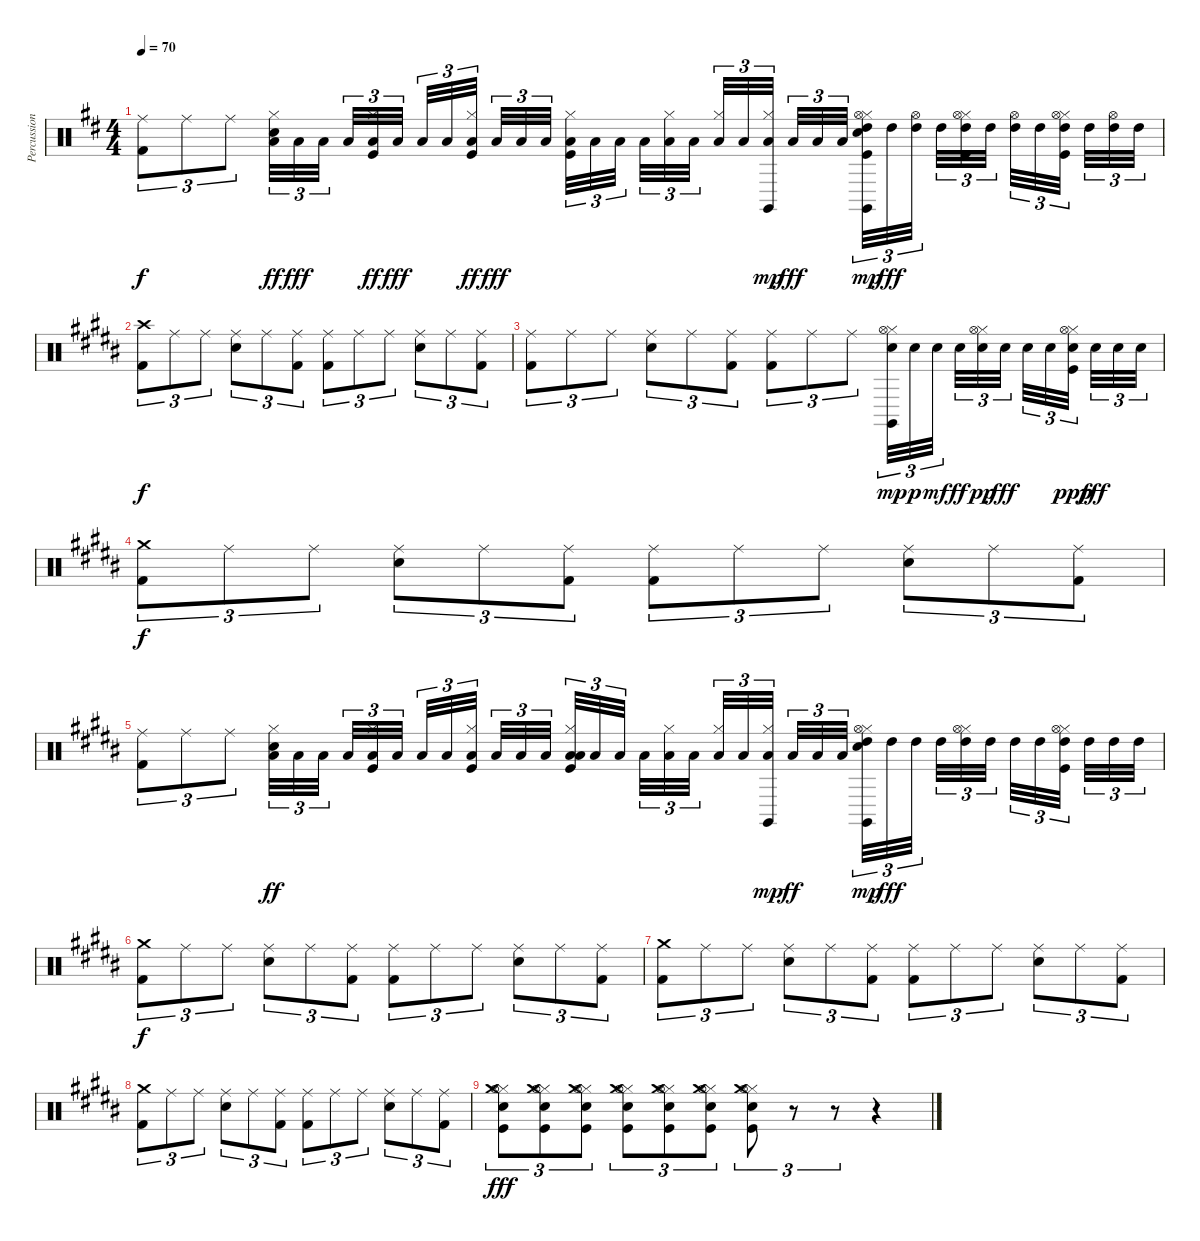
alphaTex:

\track ("Percussion" "Percussion") {instrument percussion}
\staff {score}
\articulation defaults
\ts (4 4)
\tempo 70
\clef neutral
\ks bminor
("Ride (middle)" "Kick (hit) 2").8{tu (3 2) dy f} "Ride (middle)".8{tu (3 2)} "Ride (middle)".8{tu (3 2)} ("Electric Snare (hit)" "Low Floor Tom (hit)" "Hi-Hat (closed)").32{tu (3 2) dy ff} "Low Floor Tom (hit)".32{tu (3 2) dy fff} "Low Floor Tom (hit)".32{tu (3 2) beam splitsecondary} "Low Floor Tom (hit)".32{tu (3 2)} ("Kick (hit)" "Low Floor Tom (hit)" "Hi-Hat (closed)").32{tu (3 2) dy ff} "Low Floor Tom (hit)".32{tu (3 2) dy fff beam splitsecondary} "Low Floor Tom (hit)".32{tu (3 2)} "Low Floor Tom (hit)".32{tu (3 2)} ("Kick (hit)" "Low Floor Tom (hit)" "Hi-Hat (closed)").32{tu (3 2) dy ff beam splitsecondary} "Low Floor Tom (hit)".32{tu (3 2) dy fff} "Low Floor Tom (hit)".32{tu (3 2)} "Low Floor Tom (hit)".32{tu (3 2)} ("Kick (hit)" "Hi-Hat (closed)" "Low Tom (hit)").32{tu (3 2)} "Low Tom (hit)".32{tu (3 2)} "Low Tom (hit)".32{tu (3 2) beam splitsecondary} "Low Tom (hit)".32{tu (3 2)} ("Hi-Hat (closed)" "Low Tom (hit)").32{tu (3 2)} "Low Tom (hit)".32{tu (3 2) beam splitsecondary} ("Hi-Hat (closed)" "Low Tom (hit)").32{tu (3 2)} "Low Tom (hit)".32{tu (3 2)} ("Hi-Hat (closed)" "Low Tom (hit)" "Claves (hit)").32{tu (3 2) dy mp beam splitsecondary} "Low Tom (hit)".32{tu (3 2) dy fff} "Low Tom (hit)".32{tu (3 2)} "Low Tom (hit)".32{tu (3 2)} ("Kick (hit)" "Electric Snare (hit)" "Hi-Hat (closed)" "Hi-Hat (open)" "High Tom (hit)" "Claves (hit)").32{tu (3 2) dy mp} "High Tom (hit)".32{tu (3 2) dy fff} ("Hi-Hat (open)" "High Tom (hit)").32{tu (3 2) beam splitsecondary} "High Tom (hit)".32{tu (3 2)} ("Kick (hit)" "Hi-Hat (closed)" "Hi-Hat (open)" "High Tom (hit)").32{tu (3 2)} "High Tom (hit)".32{tu (3 2) beam splitsecondary} ("Hi-Hat (open)" "High Tom (hit)").32{tu (3 2)} "High Tom (hit)".32{tu (3 2)} ("Kick (hit)" "Hi-Hat (closed)" "Hi-Hat (open)" "High Tom (hit)").32{tu (3 2) beam splitsecondary} "High Tom (hit)".32{tu (3 2)} ("Hi-Hat (open)" "High Tom (hit)").32{tu (3 2)} "High Tom (hit)".32{tu (3 2)} |
\ks b
("Crash high (hit)" "Kick (hit) 2").8{tu (3 2) dy f} "Ride (middle)".8{tu (3 2)} "Ride (middle)".8{tu (3 2)} ("Snare (hit) 2" "Ride (middle)").8{tu (3 2)} "Ride (middle)".8{tu (3 2)} ("Ride (middle)" "Kick (hit) 2").8{tu (3 2)} ("Ride (middle)" "Kick (hit) 2").8{tu (3 2)} "Ride (middle)".8{tu (3 2)} "Ride (middle)".8{tu (3 2)} ("Snare (hit) 2" "Ride (middle)").8{tu (3 2)} "Ride (middle)".8{tu (3 2)} ("Ride (middle)" "Kick (hit) 2").8{tu (3 2)} |
("Ride (middle)" "Kick (hit) 2").8{tu (3 2)} "Ride (middle)".8{tu (3 2)} "Ride (middle)".8{tu (3 2)} ("Snare (hit) 2" "Ride (middle)").8{tu (3 2)} "Ride (middle)".8{tu (3 2)} ("Ride (middle)" "Kick (hit) 2").8{tu (3 2)} ("Ride (middle)" "Kick (hit) 2").8{tu (3 2)} "Ride (middle)".8{tu (3 2)} "Ride (middle)".8{tu (3 2)} ("Electric Snare (hit)" "Hi-Hat (closed)" "Hi-Hat (open)" "Claves (hit)").32{tu (3 2) dy mp} "Electric Snare (hit)".32{tu (3 2) dy p} "Electric Snare (hit)".32{tu (3 2) dy mf beam splitsecondary} "Electric Snare (hit)".32{tu (3 2) dy ff} ("Electric Snare (hit)" "Hi-Hat (closed)" "Hi-Hat (open)").32{tu (3 2) dy pp} "Electric Snare (hit)".32{tu (3 2) dy fff beam splitsecondary} "Electric Snare (hit)".32{tu (3 2)} "Electric Snare (hit)".32{tu (3 2)} ("Kick (hit)" "Electric Snare (hit)" "Hi-Hat (closed)" "Hi-Hat (open)").32{tu (3 2) dy ppp beam splitsecondary} "Electric Snare (hit)".32{tu (3 2) dy fff} "Electric Snare (hit)".32{tu (3 2)} "Electric Snare (hit)".32{tu (3 2)} |
("Crash medium (hit)" "Kick (hit) 2").8{tu (3 2) dy f} "Ride (middle)".8{tu (3 2)} "Ride (middle)".8{tu (3 2)} ("Snare (hit) 2" "Ride (middle)").8{tu (3 2)} "Ride (middle)".8{tu (3 2)} ("Ride (middle)" "Kick (hit) 2").8{tu (3 2)} ("Ride (middle)" "Kick (hit) 2").8{tu (3 2)} "Ride (middle)".8{tu (3 2)} "Ride (middle)".8{tu (3 2)} ("Snare (hit) 2" "Ride (middle)").8{tu (3 2)} "Ride (middle)".8{tu (3 2)} ("Ride (middle)" "Kick (hit) 2").8{tu (3 2)} |
("Ride (middle)" "Kick (hit) 2").8{tu (3 2)} "Ride (middle)".8{tu (3 2)} "Ride (middle)".8{tu (3 2)} ("Electric Snare (hit)" "Low Floor Tom (hit)" "Hi-Hat (closed)").32{tu (3 2) dy ff} "Low Floor Tom (hit)".32{tu (3 2)} "Low Floor Tom (hit)".32{tu (3 2) beam splitsecondary} "Low Floor Tom (hit)".32{tu (3 2)} ("Kick (hit)" "Low Floor Tom (hit)" "Hi-Hat (closed)").32{tu (3 2)} "Low Floor Tom (hit)".32{tu (3 2) beam splitsecondary} "Low Floor Tom (hit)".32{tu (3 2)} "Low Floor Tom (hit)".32{tu (3 2)} ("Kick (hit)" "Low Floor Tom (hit)" "Hi-Hat (closed)").32{tu (3 2) beam splitsecondary} "Low Floor Tom (hit)".32{tu (3 2)} "Low Floor Tom (hit)".32{tu (3 2)} "Low Floor Tom (hit)".32{tu (3 2)} ("Kick (hit)" "Low Floor Tom (hit)" "Hi-Hat (closed)" "Low Tom (hit)").32{tu (3 2)} "Low Tom (hit)".32{tu (3 2)} "Low Tom (hit)".32{tu (3 2) beam splitsecondary} "Low Tom (hit)".32{tu (3 2)} ("Hi-Hat (closed)" "Low Tom (hit)").32{tu (3 2)} "Low Tom (hit)".32{tu (3 2) beam splitsecondary} ("Hi-Hat (closed)" "Low Tom (hit)").32{tu (3 2)} "Low Tom (hit)".32{tu (3 2)} ("Hi-Hat (closed)" "Low Tom (hit)" "Claves (hit)").32{tu (3 2) dy mp beam splitsecondary} "Low Tom (hit)".32{tu (3 2) dy ff} "Low Tom (hit)".32{tu (3 2)} "Low Tom (hit)".32{tu (3 2)} ("Electric Snare (hit)" "Hi-Hat (closed)" "Hi-Hat (open)" "High Tom (hit)" "Claves (hit)").32{tu (3 2) dy mp} "High Tom (hit)".32{tu (3 2) dy fff} "High Tom (hit)".32{tu (3 2) beam splitsecondary} "High Tom (hit)".32{tu (3 2)} ("Hi-Hat (closed)" "Hi-Hat (open)" "High Tom (hit)").32{tu (3 2)} "High Tom (hit)".32{tu (3 2) beam splitsecondary} "High Tom (hit)".32{tu (3 2)} "High Tom (hit)".32{tu (3 2)} ("Kick (hit)" "Hi-Hat (closed)" "Hi-Hat (open)" "High Tom (hit)").32{tu (3 2) beam splitsecondary} "High Tom (hit)".32{tu (3 2)} "High Tom (hit)".32{tu (3 2)} "High Tom (hit)".32{tu (3 2)} |
("Crash medium (hit)" "Kick (hit) 2").8{tu (3 2) dy f} "Ride (middle)".8{tu (3 2)} "Ride (middle)".8{tu (3 2)} ("Snare (hit) 2" "Ride (middle)").8{tu (3 2)} "Ride (middle)".8{tu (3 2)} ("Ride (middle)" "Kick (hit) 2").8{tu (3 2)} ("Ride (middle)" "Kick (hit) 2").8{tu (3 2)} "Ride (middle)".8{tu (3 2)} "Ride (middle)".8{tu (3 2)} ("Snare (hit) 2" "Ride (middle)").8{tu (3 2)} "Ride (middle)".8{tu (3 2)} ("Ride (middle)" "Kick (hit) 2").8{tu (3 2)} |
("Crash medium (hit)" "Kick (hit) 2").8{tu (3 2)} "Ride (middle)".8{tu (3 2)} "Ride (middle)".8{tu (3 2)} ("Snare (hit) 2" "Ride (middle)").8{tu (3 2)} "Ride (middle)".8{tu (3 2)} ("Ride (middle)" "Kick (hit) 2").8{tu (3 2)} ("Ride (middle)" "Kick (hit) 2").8{tu (3 2)} "Ride (middle)".8{tu (3 2)} "Ride (middle)".8{tu (3 2)} ("Snare (hit) 2" "Ride (middle)").8{tu (3 2)} "Ride (middle)".8{tu (3 2)} ("Ride (middle)" "Kick (hit) 2").8{tu (3 2)} |
("Crash medium (hit)" "Kick (hit) 2").8{tu (3 2)} "Ride (middle)".8{tu (3 2)} "Ride (middle)".8{tu (3 2)} ("Snare (hit) 2" "Ride (middle)").8{tu (3 2)} "Ride (middle)".8{tu (3 2)} ("Ride (middle)" "Kick (hit) 2").8{tu (3 2)} ("Ride (middle)" "Kick (hit) 2").8{tu (3 2)} "Ride (middle)".8{tu (3 2)} "Ride (middle)".8{tu (3 2)} ("Snare (hit) 2" "Ride (middle)").8{tu (3 2)} "Ride (middle)".8{tu (3 2)} ("Ride (middle)" "Kick (hit) 2").8{tu (3 2)} |
("Kick (hit)" "Electric Snare (hit)" "Hi-Hat (closed)" "Hi-Hat (open)" "Crash medium (hit)").8{tu (3 2) dy fff} ("Kick (hit)" "Electric Snare (hit)" "Hi-Hat (closed)" "Hi-Hat (open)" "Crash medium (hit)").8{tu (3 2)} ("Kick (hit)" "Electric Snare (hit)" "Hi-Hat (closed)" "Hi-Hat (open)" "Crash medium (hit)").8{tu (3 2)} ("Kick (hit)" "Electric Snare (hit)" "Hi-Hat (closed)" "Hi-Hat (open)" "Crash medium (hit)").8{tu (3 2)} ("Kick (hit)" "Electric Snare (hit)" "Hi-Hat (closed)" "Hi-Hat (open)" "Crash medium (hit)").8{tu (3 2)} ("Kick (hit)" "Electric Snare (hit)" "Hi-Hat (closed)" "Hi-Hat (open)" "Crash medium (hit)").8{tu (3 2)} ("Kick (hit)" "Electric Snare (hit)" "Hi-Hat (closed)" "Hi-Hat (open)" "Crash medium (hit)").8{tu (3 2)} r.8{tu (3 2)} r.8{tu (3 2)} r.4
